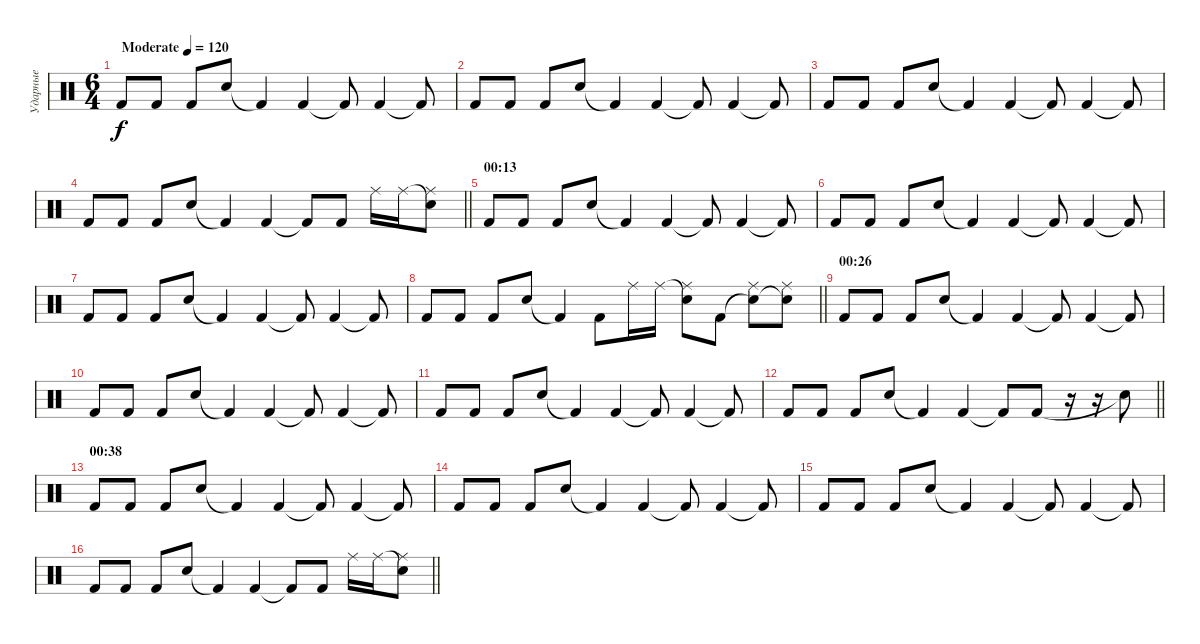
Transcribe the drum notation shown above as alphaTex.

\track ("Ударные" "Ударные") {instrument percussion}
\staff {score}
\articulation defaults
\ts (6 4)
\tempo (120 "Moderate")
\clef neutral
\ks c "Kick (hit) 2".8{dy f} "Kick (hit) 2".8 "Kick (hit) 2".8 "Electric Snare (hit)".8 "Kick (hit) 2"{t}.4 "Kick (hit) 2".4 "Kick (hit) 2"{t}.8 "Kick (hit) 2".4 "Kick (hit) 2"{t}.8
|
"Kick (hit) 2".8 "Kick (hit) 2".8 "Kick (hit) 2".8 "Electric Snare (hit)".8 "Kick (hit) 2"{t}.4 "Kick (hit) 2".4 "Kick (hit) 2"{t}.8 "Kick (hit) 2".4 "Kick (hit) 2"{t}.8 |
"Kick (hit) 2".8 "Kick (hit) 2".8 "Kick (hit) 2".8 "Electric Snare (hit)".8 "Kick (hit) 2"{t}.4 "Kick (hit) 2".4 "Kick (hit) 2"{t}.8 "Kick (hit) 2".4 "Kick (hit) 2"{t}.8 |
\barLineRight lightlight "Kick (hit) 2".8 "Kick (hit) 2".8 "Kick (hit) 2".8 "Electric Snare (hit)".8 "Kick (hit) 2"{t}.4 "Kick (hit) 2".4 "Kick (hit) 2"{t}.8 "Kick (hit) 2".8 "Ride (middle)".16 "Ride (middle)".16
("Snare (hit)"{t} "Ride (middle)").8 |
\section ("" "00:13")
"Kick (hit) 2".8 "Kick (hit) 2".8 "Kick (hit) 2".8 "Electric Snare (hit)".8 "Kick (hit) 2"{t}.4 "Kick (hit) 2".4 "Kick (hit) 2"{t}.8 "Kick (hit) 2".4 "Kick (hit) 2"{t}.8 |
"Kick (hit) 2".8 "Kick (hit) 2".8 "Kick (hit) 2".8 "Electric Snare (hit)".8 "Kick (hit) 2"{t}.4 "Kick (hit) 2".4 "Kick (hit) 2"{t}.8 "Kick (hit) 2".4 "Kick (hit) 2"{t}.8 |
"Kick (hit) 2".8 "Kick (hit) 2".8 "Kick (hit) 2".8 "Electric Snare (hit)".8 "Kick (hit) 2"{t}.4 "Kick (hit) 2".4 "Kick (hit) 2"{t}.8 "Kick (hit) 2".4 "Kick (hit) 2"{t}.8 |
\barLineRight lightlight "Kick (hit) 2".8 "Kick (hit) 2".8 "Kick (hit) 2".8 "Electric Snare (hit)".8 "Kick (hit) 2"{t}.4 "Kick (hit) 2".8 "Ride (middle)".16 "Ride (middle)".16
("Snare (hit)"{t} "Ride (middle)").8 "Kick (hit) 2".8 ("Snare (hit)"{t} "Ride (middle)").8 ("Snare (hit)"{t} "Ride (middle)").8 |
\section ("" "00:26")
"Kick (hit) 2".8 "Kick (hit) 2".8 "Kick (hit) 2".8 "Electric Snare (hit)".8 "Kick (hit) 2"{t}.4 "Kick (hit) 2".4 "Kick (hit) 2"{t}.8 "Kick (hit) 2".4 "Kick (hit) 2"{t}.8 |
"Kick (hit) 2".8 "Kick (hit) 2".8 "Kick (hit) 2".8 "Electric Snare (hit)".8 "Kick (hit) 2"{t}.4 "Kick (hit) 2".4 "Kick (hit) 2"{t}.8 "Kick (hit) 2".4 "Kick (hit) 2"{t}.8 |
"Kick (hit) 2".8 "Kick (hit) 2".8 "Kick (hit) 2".8 "Electric Snare (hit)".8 "Kick (hit) 2"{t}.4 "Kick (hit) 2".4 "Kick (hit) 2"{t}.8 "Kick (hit) 2".4 "Kick (hit) 2"{t}.8 |
\barLineRight lightlight "Kick (hit) 2".8 "Kick (hit) 2".8 "Kick (hit) 2".8 "Electric Snare (hit)".8 "Kick (hit) 2"{t}.4 "Kick (hit) 2".4 "Kick (hit) 2"{t}.8 "Kick (hit) 2".8
r.16 r.16 "Snare (hit)"{t}.8 |
\section ("" "00:38")
"Kick (hit) 2".8 "Kick (hit) 2".8 "Kick (hit) 2".8 "Electric Snare (hit)".8 "Kick (hit) 2"{t}.4 "Kick (hit) 2".4 "Kick (hit) 2"{t}.8 "Kick (hit) 2".4 "Kick (hit) 2"{t}.8 |
"Kick (hit) 2".8 "Kick (hit) 2".8 "Kick (hit) 2".8 "Electric Snare (hit)".8 "Kick (hit) 2"{t}.4 "Kick (hit) 2".4 "Kick (hit) 2"{t}.8 "Kick (hit) 2".4 "Kick (hit) 2"{t}.8 |
"Kick (hit) 2".8 "Kick (hit) 2".8 "Kick (hit) 2".8 "Electric Snare (hit)".8 "Kick (hit) 2"{t}.4 "Kick (hit) 2".4 "Kick (hit) 2"{t}.8 "Kick (hit) 2".4 "Kick (hit) 2"{t}.8 |
\barLineRight lightlight "Kick (hit) 2".8 "Kick (hit) 2".8 "Kick (hit) 2".8 "Electric Snare (hit)".8 "Kick (hit) 2"{t}.4 "Kick (hit) 2".4 "Kick (hit) 2"{t}.8 "Kick (hit) 2".8 "Ride (middle)".16 "Ride (middle)".16
("Snare (hit)"{t} "Ride (middle)").8
